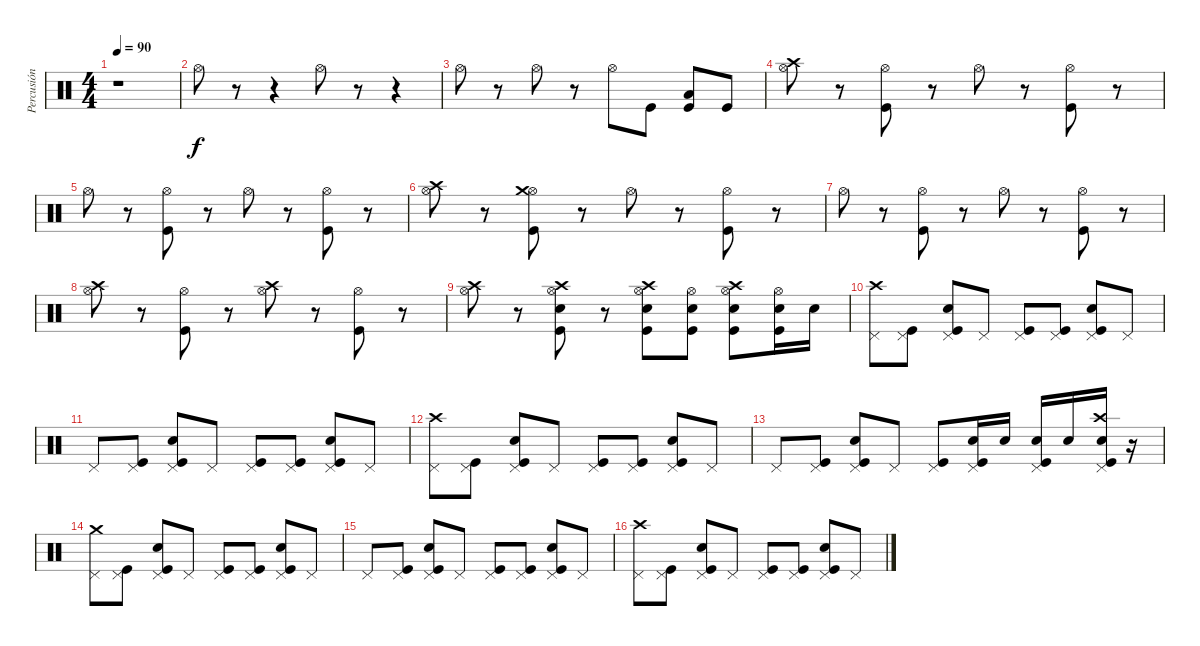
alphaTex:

\track ("Percusión" "Percusión") {instrument percussion}
\staff {score}
\articulation defaults
\ts (4 4)
\tempo 90
\clef neutral
\ks c
r.1{dy f} |
"Hi-Hat (open)".8 r.8 r.4 "Hi-Hat (open)".8 r.8 r.4 |
"Hi-Hat (open)".8 r.8 "Hi-Hat (open)".8 r.8 "Hi-Hat (open)".8 "Kick (hit)".8 ("Low Tom (hit)" "Kick (hit)").8 "Kick (hit)".8 |
("Hi-Hat (open)" "Crash high (hit)").8{balance 4} r.8 ("Hi-Hat (open)" "Kick (hit)").8{balance 8} r.8 "Hi-Hat (open)".8 r.8 ("Hi-Hat (open)" "Kick (hit)").8 r.8 |
"Hi-Hat (open)".8 r.8 ("Hi-Hat (open)" "Kick (hit)").8 r.8 "Hi-Hat (open)".8 r.8 ("Hi-Hat (open)" "Kick (hit)").8 r.8 |
("Hi-Hat (open)" "Crash high (hit)").8{balance 12} r.8 ("Hi-Hat (open)" "Crash medium (hit)" "Kick (hit)").8{balance 4} r.8 "Hi-Hat (open)".8{balance 8} r.8 ("Hi-Hat (open)" "Kick (hit)").8 r.8 |
"Hi-Hat (open)".8 r.8 ("Hi-Hat (open)" "Kick (hit)").8 r.8 "Hi-Hat (open)".8 r.8 ("Hi-Hat (open)" "Kick (hit)").8 r.8 |
("Hi-Hat (open)" "Crash high (hit)").8{balance 12} r.8 ("Hi-Hat (open)" "Kick (hit)").8{balance 8} r.8 ("Hi-Hat (open)" "Crash high (hit)").8{balance 4} r.8 ("Hi-Hat (open)" "Kick (hit)").8{balance 8} r.8 |
("Hi-Hat (open)" "Crash high (hit)").8{balance 12} r.8 ("Hi-Hat (open)" "Crash high (hit)" "Kick (hit)" "Snare (hit) 2").8{balance 4} r.8 ("Hi-Hat (open)" "Crash high (hit)" "Kick (hit)" "Snare (hit) 2").8{balance 12} ("Kick (hit)" "Hi-Hat (open)" "Snare (hit) 2").8{balance 8} ("Hi-Hat (open)" "Crash high (hit)" "Kick (hit)" "Snare (hit) 2").8 ("Hi-Hat (open)" "Kick (hit)" "Snare (hit) 2").16 "Snare (hit) 2".16 |
("Pedal Hi-Hat (hit)" "Crash high (hit)").8 ("Pedal Hi-Hat (hit)" "Kick (hit)").8 ("Pedal Hi-Hat (hit)" "Kick (hit)" "Snare (hit) 2").8 "Pedal Hi-Hat (hit)".8 ("Pedal Hi-Hat (hit)" "Kick (hit)").8 ("Pedal Hi-Hat (hit)" "Kick (hit)").8 ("Pedal Hi-Hat (hit)" "Kick (hit)" "Snare (hit) 2").8 "Pedal Hi-Hat (hit)".8 |
"Pedal Hi-Hat (hit)".8 ("Pedal Hi-Hat (hit)" "Kick (hit)").8 ("Pedal Hi-Hat (hit)" "Kick (hit)" "Snare (hit) 2").8 "Pedal Hi-Hat (hit)".8 ("Pedal Hi-Hat (hit)" "Kick (hit)").8 ("Pedal Hi-Hat (hit)" "Kick (hit)").8 ("Pedal Hi-Hat (hit)" "Kick (hit)" "Snare (hit) 2").8 "Pedal Hi-Hat (hit)".8 |
("Pedal Hi-Hat (hit)" "Crash high (hit)").8{balance 4} ("Pedal Hi-Hat (hit)" "Kick (hit)").8{balance 8} ("Pedal Hi-Hat (hit)" "Kick (hit)" "Snare (hit) 2").8 "Pedal Hi-Hat (hit)".8 ("Pedal Hi-Hat (hit)" "Kick (hit)").8 ("Pedal Hi-Hat (hit)" "Kick (hit)").8 ("Pedal Hi-Hat (hit)" "Kick (hit)" "Snare (hit) 2").8 "Pedal Hi-Hat (hit)".8 |
"Pedal Hi-Hat (hit)".8 ("Pedal Hi-Hat (hit)" "Kick (hit)").8 ("Pedal Hi-Hat (hit)" "Kick (hit)" "Snare (hit) 2").8 "Pedal Hi-Hat (hit)".8 ("Pedal Hi-Hat (hit)" "Kick (hit)").8 ("Pedal Hi-Hat (hit)" "Kick (hit)" "Snare (hit) 2").16 "Snare (hit) 2".16 ("Pedal Hi-Hat (hit)" "Kick (hit)" "Snare (hit) 2").16 "Snare (hit) 2".16 ("Pedal Hi-Hat (hit)" "Crash high (hit)" "Kick (hit)" "Snare (hit) 2").16{balance 12} r.16 |
("Pedal Hi-Hat (hit)" "Crash medium (hit)").8{balance 4} ("Pedal Hi-Hat (hit)" "Kick (hit)").8{balance 8} ("Pedal Hi-Hat (hit)" "Kick (hit)" "Snare (hit) 2").8 "Pedal Hi-Hat (hit)".8 ("Pedal Hi-Hat (hit)" "Kick (hit)").8 ("Pedal Hi-Hat (hit)" "Kick (hit)").8 ("Pedal Hi-Hat (hit)" "Kick (hit)" "Snare (hit) 2").8 "Pedal Hi-Hat (hit)".8 |
"Pedal Hi-Hat (hit)".8 ("Pedal Hi-Hat (hit)" "Kick (hit)").8 ("Pedal Hi-Hat (hit)" "Kick (hit)" "Snare (hit) 2").8 "Pedal Hi-Hat (hit)".8 ("Pedal Hi-Hat (hit)" "Kick (hit)").8 ("Pedal Hi-Hat (hit)" "Kick (hit)").8 ("Pedal Hi-Hat (hit)" "Kick (hit)" "Snare (hit) 2").8 "Pedal Hi-Hat (hit)".8 |
("Pedal Hi-Hat (hit)" "Crash high (hit)").8{balance 12} ("Pedal Hi-Hat (hit)" "Kick (hit)").8{balance 8} ("Pedal Hi-Hat (hit)" "Kick (hit)" "Snare (hit) 2").8 "Pedal Hi-Hat (hit)".8 ("Pedal Hi-Hat (hit)" "Kick (hit)").8 ("Pedal Hi-Hat (hit)" "Kick (hit)").8 ("Pedal Hi-Hat (hit)" "Kick (hit)" "Snare (hit) 2").8 "Pedal Hi-Hat (hit)".8
